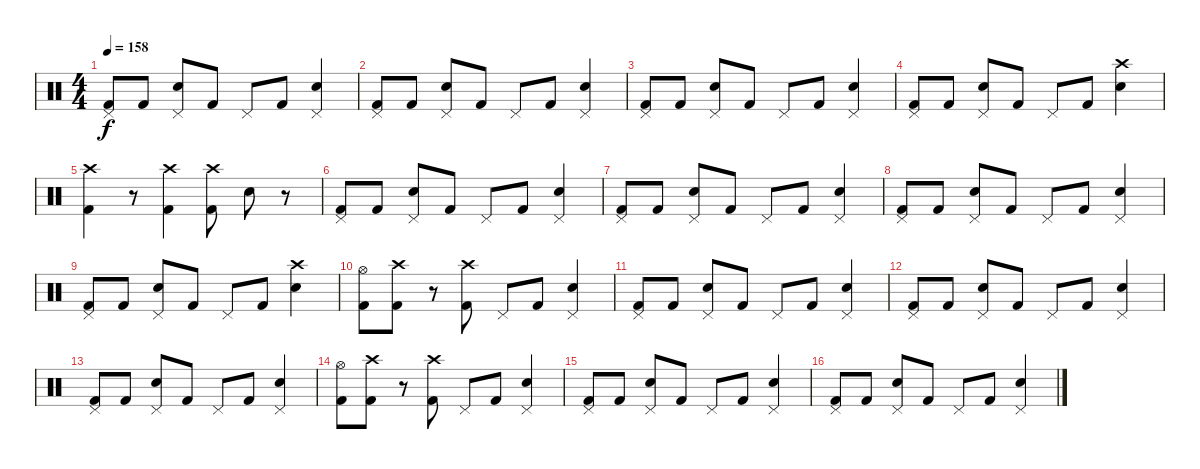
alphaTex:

\track "" {instrument percussion}
\staff {score}
\articulation defaults
\ts (4 4)
\tempo 158
\clef neutral
\ks c
("Pedal Hi-Hat (hit)" "Kick (hit) 2").8{dy f} "Kick (hit) 2".8 ("Pedal Hi-Hat (hit)" "Electric Snare (hit)").8 "Kick (hit) 2".8 "Pedal Hi-Hat (hit)".8 "Kick (hit) 2".8 ("Pedal Hi-Hat (hit)" "Electric Snare (hit)").4 |
("Pedal Hi-Hat (hit)" "Kick (hit) 2").8 "Kick (hit) 2".8 ("Pedal Hi-Hat (hit)" "Electric Snare (hit)").8 "Kick (hit) 2".8 "Pedal Hi-Hat (hit)".8 "Kick (hit) 2".8 ("Pedal Hi-Hat (hit)" "Electric Snare (hit)").4 |
("Pedal Hi-Hat (hit)" "Kick (hit) 2").8 "Kick (hit) 2".8 ("Pedal Hi-Hat (hit)" "Electric Snare (hit)").8 "Kick (hit) 2".8 "Pedal Hi-Hat (hit)".8 "Kick (hit) 2".8 ("Pedal Hi-Hat (hit)" "Electric Snare (hit)").4 |
("Pedal Hi-Hat (hit)" "Kick (hit) 2").8 "Kick (hit) 2".8 ("Pedal Hi-Hat (hit)" "Electric Snare (hit)").8 "Kick (hit) 2".8 "Pedal Hi-Hat (hit)".8 "Kick (hit) 2".8 ("Crash high (hit)" "Electric Snare (hit)").4 |
("Crash high (hit)" "Kick (hit) 2").4 r.8 ("Crash high (hit)" "Kick (hit) 2").4 ("Crash high (hit)" "Kick (hit) 2").8 "Electric Snare (hit)".8 r.8 |
("Pedal Hi-Hat (hit)" "Kick (hit) 2").8 "Kick (hit) 2".8 ("Pedal Hi-Hat (hit)" "Electric Snare (hit)").8 "Kick (hit) 2".8 "Pedal Hi-Hat (hit)".8 "Kick (hit) 2".8 ("Pedal Hi-Hat (hit)" "Electric Snare (hit)").4 |
("Pedal Hi-Hat (hit)" "Kick (hit) 2").8 "Kick (hit) 2".8 ("Pedal Hi-Hat (hit)" "Electric Snare (hit)").8 "Kick (hit) 2".8 "Pedal Hi-Hat (hit)".8 "Kick (hit) 2".8 ("Pedal Hi-Hat (hit)" "Electric Snare (hit)").4 |
("Pedal Hi-Hat (hit)" "Kick (hit) 2").8 "Kick (hit) 2".8 ("Pedal Hi-Hat (hit)" "Electric Snare (hit)").8 "Kick (hit) 2".8 "Pedal Hi-Hat (hit)".8 "Kick (hit) 2".8 ("Pedal Hi-Hat (hit)" "Electric Snare (hit)").4 |
("Pedal Hi-Hat (hit)" "Kick (hit) 2").8 "Kick (hit) 2".8 ("Pedal Hi-Hat (hit)" "Electric Snare (hit)").8 "Kick (hit) 2".8 "Pedal Hi-Hat (hit)".8 "Kick (hit) 2".8 ("Crash high (hit)" "Electric Snare (hit)").4 |
("Hi-Hat (open)" "Kick (hit) 2").8 ("Crash high (hit)" "Kick (hit) 2").8 r.8 ("Crash high (hit)" "Kick (hit) 2").8 "Pedal Hi-Hat (hit)".8 "Kick (hit) 2".8 ("Pedal Hi-Hat (hit)" "Electric Snare (hit)").4 |
("Pedal Hi-Hat (hit)" "Kick (hit) 2").8 "Kick (hit) 2".8 ("Pedal Hi-Hat (hit)" "Electric Snare (hit)").8 "Kick (hit) 2".8 "Pedal Hi-Hat (hit)".8 "Kick (hit) 2".8 ("Pedal Hi-Hat (hit)" "Electric Snare (hit)").4 |
("Pedal Hi-Hat (hit)" "Kick (hit) 2").8 "Kick (hit) 2".8 ("Pedal Hi-Hat (hit)" "Electric Snare (hit)").8 "Kick (hit) 2".8 "Pedal Hi-Hat (hit)".8 "Kick (hit) 2".8 ("Pedal Hi-Hat (hit)" "Electric Snare (hit)").4 |
("Pedal Hi-Hat (hit)" "Kick (hit) 2").8 "Kick (hit) 2".8 ("Pedal Hi-Hat (hit)" "Electric Snare (hit)").8 "Kick (hit) 2".8 "Pedal Hi-Hat (hit)".8 "Kick (hit) 2".8 ("Pedal Hi-Hat (hit)" "Electric Snare (hit)").4 |
("Hi-Hat (open)" "Kick (hit) 2").8 ("Crash high (hit)" "Kick (hit) 2").8 r.8 ("Crash high (hit)" "Kick (hit) 2").8 "Pedal Hi-Hat (hit)".8 "Kick (hit) 2".8 ("Pedal Hi-Hat (hit)" "Electric Snare (hit)").4 |
("Pedal Hi-Hat (hit)" "Kick (hit) 2").8 "Kick (hit) 2".8 ("Pedal Hi-Hat (hit)" "Electric Snare (hit)").8 "Kick (hit) 2".8 "Pedal Hi-Hat (hit)".8 "Kick (hit) 2".8 ("Pedal Hi-Hat (hit)" "Electric Snare (hit)").4 |
("Pedal Hi-Hat (hit)" "Kick (hit) 2").8 "Kick (hit) 2".8 ("Pedal Hi-Hat (hit)" "Electric Snare (hit)").8 "Kick (hit) 2".8 "Pedal Hi-Hat (hit)".8 "Kick (hit) 2".8 ("Pedal Hi-Hat (hit)" "Electric Snare (hit)").4
